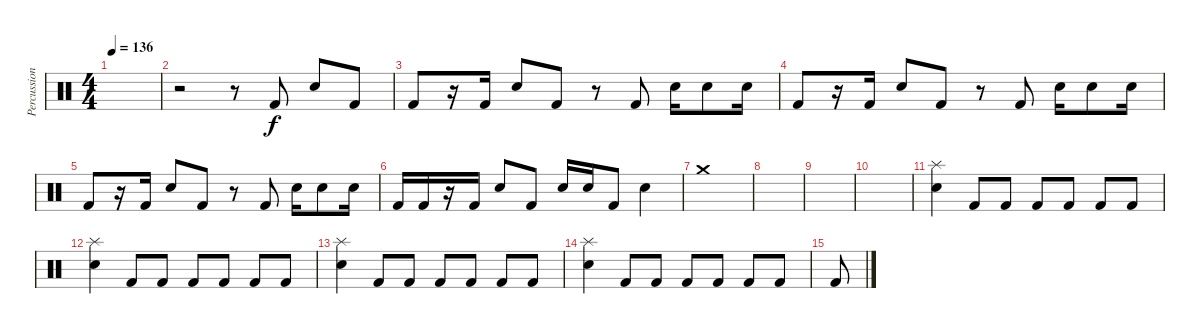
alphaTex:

\track ("Percussion" "Percussion") {instrument percussion}
\staff {score}
\articulation defaults
\ts (4 4)
\tempo 136
\clef neutral
\ks c
|
r.2 r.8 "Kick (hit) 2".8 "Snare (hit) 2".8 "Kick (hit) 2".8 |
"Kick (hit) 2".8 r.16 "Kick (hit) 2".16 "Snare (hit) 2".8 "Kick (hit) 2".8 r.8 "Kick (hit) 2".8 "Snare (hit) 2".16 "Snare (hit) 2".8 "Snare (hit) 2".16 |
"Kick (hit) 2".8 r.16 "Kick (hit) 2".16 "Snare (hit) 2".8 "Kick (hit) 2".8 r.8 "Kick (hit) 2".8 "Snare (hit) 2".16 "Snare (hit) 2".8 "Snare (hit) 2".16 |
"Kick (hit) 2".8 r.16 "Kick (hit) 2".16 "Snare (hit) 2".8 "Kick (hit) 2".8 r.8 "Kick (hit) 2".8 "Snare (hit) 2".16 "Snare (hit) 2".8 "Snare (hit) 2".16 |
"Kick (hit) 2".16 "Kick (hit) 2".16 r.16 "Kick (hit) 2".16 "Snare (hit) 2".8 "Kick (hit) 2".8 "Snare (hit) 2".16 "Snare (hit) 2".16 "Kick (hit) 2".8 "Snare (hit) 2".4 |
"Crash medium (hit)".1 |
|
|
|
("Splash (hit)" "Electric Snare (hit)").4 "Kick (hit) 2".8 "Kick (hit) 2".8 "Kick (hit) 2".8 "Kick (hit) 2".8 "Kick (hit) 2".8 "Kick (hit) 2".8 |
("Splash (hit)" "Electric Snare (hit)").4 "Kick (hit) 2".8 "Kick (hit) 2".8 "Kick (hit) 2".8 "Kick (hit) 2".8 "Kick (hit) 2".8 "Kick (hit) 2".8 |
("Splash (hit)" "Electric Snare (hit)").4 "Kick (hit) 2".8 "Kick (hit) 2".8 "Kick (hit) 2".8 "Kick (hit) 2".8 "Kick (hit) 2".8 "Kick (hit) 2".8 |
("Splash (hit)" "Electric Snare (hit)").4 "Kick (hit) 2".8 "Kick (hit) 2".8 "Kick (hit) 2".8 "Kick (hit) 2".8 "Kick (hit) 2".8 "Kick (hit) 2".8 |
"Kick (hit) 2".8
